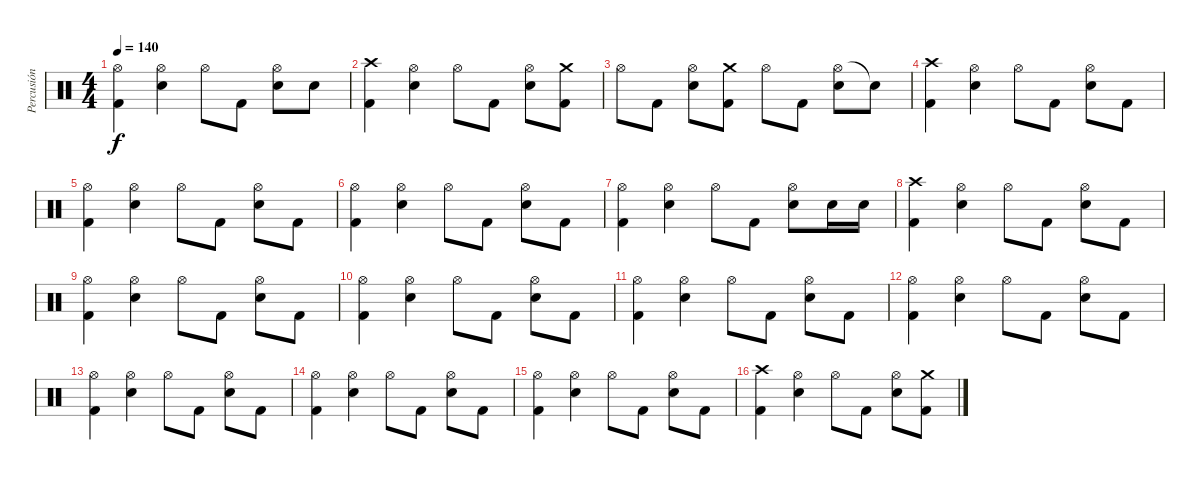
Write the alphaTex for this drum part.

\track ("Percusión" "Percusión") {instrument percussion}
\staff {score}
\articulation defaults
\ts (4 4)
\tempo 140
\clef neutral
\ks c
("Hi-Hat (open)" "Kick (hit) 2").4{dy f} ("Hi-Hat (open)" "Snare (hit) 2").4 "Hi-Hat (open)".8 "Kick (hit) 2".8 ("Hi-Hat (open)" "Snare (hit) 2").8 "Snare (hit) 2".8 |
("Crash high (hit)" "Kick (hit) 2").4 ("Hi-Hat (open)" "Snare (hit) 2").4 "Hi-Hat (open)".8 "Kick (hit) 2".8 ("Hi-Hat (open)" "Snare (hit) 2").8 ("Crash medium (hit)" "Kick (hit) 2").8 |
"Hi-Hat (open)".8 "Kick (hit) 2".8 ("Hi-Hat (open)" "Snare (hit) 2").8 ("Crash medium (hit)" "Kick (hit) 2").8 "Hi-Hat (open)".8 "Kick (hit) 2".8 ("Hi-Hat (open)" "Snare (hit) 2").8 "Snare (hit)"{t}.8 |
("Crash high (hit)" "Kick (hit) 2").4 ("Hi-Hat (open)" "Snare (hit) 2").4 "Hi-Hat (open)".8 "Kick (hit) 2".8 ("Hi-Hat (open)" "Snare (hit) 2").8 "Kick (hit) 2".8 |
("Hi-Hat (open)" "Kick (hit) 2").4 ("Hi-Hat (open)" "Snare (hit) 2").4 "Hi-Hat (open)".8 "Kick (hit) 2".8 ("Hi-Hat (open)" "Snare (hit) 2").8 "Kick (hit) 2".8 |
("Hi-Hat (open)" "Kick (hit) 2").4 ("Hi-Hat (open)" "Snare (hit) 2").4 "Hi-Hat (open)".8 "Kick (hit) 2".8 ("Hi-Hat (open)" "Snare (hit) 2").8 "Kick (hit) 2".8 |
("Hi-Hat (open)" "Kick (hit) 2").4 ("Hi-Hat (open)" "Snare (hit) 2").4 "Hi-Hat (open)".8 "Kick (hit) 2".8 ("Hi-Hat (open)" "Snare (hit) 2").8 "Snare (hit) 2".16 "Snare (hit) 2".16 |
("Crash high (hit)" "Kick (hit) 2").4 ("Hi-Hat (open)" "Snare (hit) 2").4 "Hi-Hat (open)".8 "Kick (hit) 2".8 ("Hi-Hat (open)" "Snare (hit) 2").8 "Kick (hit) 2".8 |
("Hi-Hat (open)" "Kick (hit) 2").4 ("Hi-Hat (open)" "Snare (hit) 2").4 "Hi-Hat (open)".8 "Kick (hit) 2".8 ("Hi-Hat (open)" "Snare (hit) 2").8 "Kick (hit) 2".8 |
("Hi-Hat (open)" "Kick (hit) 2").4 ("Hi-Hat (open)" "Snare (hit) 2").4 "Hi-Hat (open)".8 "Kick (hit) 2".8 ("Hi-Hat (open)" "Snare (hit) 2").8 "Kick (hit) 2".8 |
("Hi-Hat (open)" "Kick (hit) 2").4 ("Hi-Hat (open)" "Snare (hit) 2").4 "Hi-Hat (open)".8 "Kick (hit) 2".8 ("Hi-Hat (open)" "Snare (hit) 2").8 "Kick (hit) 2".8 |
("Hi-Hat (open)" "Kick (hit) 2").4 ("Hi-Hat (open)" "Snare (hit) 2").4 "Hi-Hat (open)".8 "Kick (hit) 2".8 ("Hi-Hat (open)" "Snare (hit) 2").8 "Kick (hit) 2".8 |
("Hi-Hat (open)" "Kick (hit) 2").4 ("Hi-Hat (open)" "Snare (hit) 2").4 "Hi-Hat (open)".8 "Kick (hit) 2".8 ("Hi-Hat (open)" "Snare (hit) 2").8 "Kick (hit) 2".8 |
("Hi-Hat (open)" "Kick (hit) 2").4 ("Hi-Hat (open)" "Snare (hit) 2").4 "Hi-Hat (open)".8 "Kick (hit) 2".8 ("Hi-Hat (open)" "Snare (hit) 2").8 "Kick (hit) 2".8 |
("Hi-Hat (open)" "Kick (hit) 2").4 ("Hi-Hat (open)" "Snare (hit) 2").4 "Hi-Hat (open)".8 "Kick (hit) 2".8 ("Hi-Hat (open)" "Snare (hit) 2").8 "Kick (hit) 2".8 |
("Crash high (hit)" "Kick (hit) 2").4 ("Hi-Hat (open)" "Snare (hit) 2").4 "Hi-Hat (open)".8 "Kick (hit) 2".8 ("Hi-Hat (open)" "Snare (hit) 2").8 ("Crash medium (hit)" "Kick (hit) 2").8
